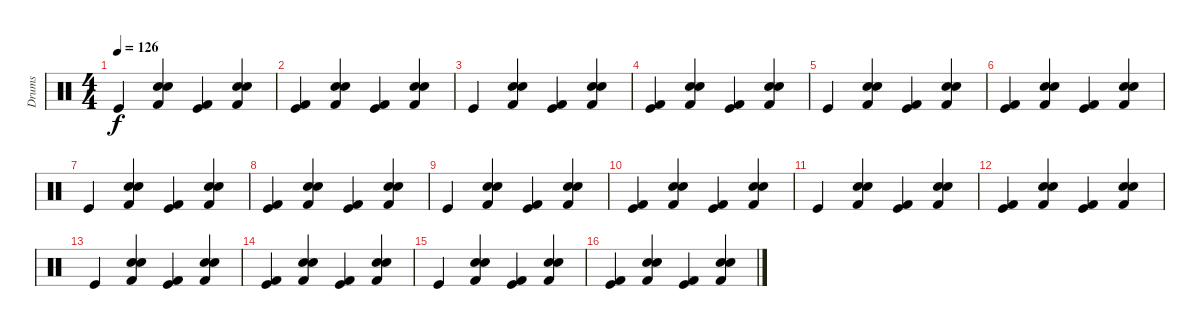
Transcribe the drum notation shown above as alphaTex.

\track ("Drums" "Drums") {instrument percussion}
\staff {score}
\articulation defaults
\ts (4 4)
\tempo 126
\clef neutral
\ks c "Kick (hit)".4{dy f}
("Snare (hit) 2" "Hand Clap (hit)" "Kick (hit) 2").4 ("Kick (hit)" "Kick (hit) 2").4 ("Snare (hit) 2" "Hand Clap (hit)" "Kick (hit) 2").4 |
("Kick (hit)" "Kick (hit) 2").4 ("Snare (hit) 2" "Hand Clap (hit)" "Kick (hit) 2").4 ("Kick (hit)" "Kick (hit) 2").4 ("Snare (hit) 2" "Hand Clap (hit)" "Kick (hit) 2").4 |
"Kick (hit)".4 ("Snare (hit) 2" "Hand Clap (hit)" "Kick (hit) 2").4 ("Kick (hit)" "Kick (hit) 2").4 ("Snare (hit) 2" "Hand Clap (hit)" "Kick (hit) 2").4 |
("Kick (hit)" "Kick (hit) 2").4 ("Snare (hit) 2" "Hand Clap (hit)" "Kick (hit) 2").4 ("Kick (hit)" "Kick (hit) 2").4 ("Snare (hit) 2" "Hand Clap (hit)" "Kick (hit) 2").4 |
"Kick (hit)".4 ("Snare (hit) 2" "Hand Clap (hit)" "Kick (hit) 2").4 ("Kick (hit)" "Kick (hit) 2").4 ("Snare (hit) 2" "Hand Clap (hit)" "Kick (hit) 2").4 |
("Kick (hit)" "Kick (hit) 2").4 ("Snare (hit) 2" "Hand Clap (hit)" "Kick (hit) 2").4 ("Kick (hit)" "Kick (hit) 2").4 ("Snare (hit) 2" "Hand Clap (hit)" "Kick (hit) 2").4 |
"Kick (hit)".4 ("Snare (hit) 2" "Hand Clap (hit)" "Kick (hit) 2").4 ("Kick (hit)" "Kick (hit) 2").4 ("Snare (hit) 2" "Hand Clap (hit)" "Kick (hit) 2").4 |
("Kick (hit)" "Kick (hit) 2").4 ("Snare (hit) 2" "Hand Clap (hit)" "Kick (hit) 2").4 ("Kick (hit)" "Kick (hit) 2").4 ("Snare (hit) 2" "Hand Clap (hit)" "Kick (hit) 2").4 |
"Kick (hit)".4 ("Snare (hit) 2" "Hand Clap (hit)" "Kick (hit) 2").4 ("Kick (hit)" "Kick (hit) 2").4 ("Snare (hit) 2" "Hand Clap (hit)" "Kick (hit) 2").4 |
("Kick (hit)" "Kick (hit) 2").4 ("Snare (hit) 2" "Hand Clap (hit)" "Kick (hit) 2").4 ("Kick (hit)" "Kick (hit) 2").4 ("Snare (hit) 2" "Hand Clap (hit)" "Kick (hit) 2").4 |
"Kick (hit)".4 ("Snare (hit) 2" "Hand Clap (hit)" "Kick (hit) 2").4 ("Kick (hit)" "Kick (hit) 2").4 ("Snare (hit) 2" "Hand Clap (hit)" "Kick (hit) 2").4 |
("Kick (hit)" "Kick (hit) 2").4 ("Snare (hit) 2" "Hand Clap (hit)" "Kick (hit) 2").4 ("Kick (hit)" "Kick (hit) 2").4 ("Snare (hit) 2" "Hand Clap (hit)" "Kick (hit) 2").4 |
"Kick (hit)".4 ("Snare (hit) 2" "Hand Clap (hit)" "Kick (hit) 2").4 ("Kick (hit)" "Kick (hit) 2").4 ("Snare (hit) 2" "Hand Clap (hit)" "Kick (hit) 2").4 |
("Kick (hit)" "Kick (hit) 2").4 ("Snare (hit) 2" "Hand Clap (hit)" "Kick (hit) 2").4 ("Kick (hit)" "Kick (hit) 2").4 ("Snare (hit) 2" "Hand Clap (hit)" "Kick (hit) 2").4 |
"Kick (hit)".4 ("Snare (hit) 2" "Hand Clap (hit)" "Kick (hit) 2").4 ("Kick (hit)" "Kick (hit) 2").4 ("Snare (hit) 2" "Hand Clap (hit)" "Kick (hit) 2").4 |
("Kick (hit)" "Kick (hit) 2").4 ("Snare (hit) 2" "Hand Clap (hit)" "Kick (hit) 2").4 ("Kick (hit)" "Kick (hit) 2").4 ("Snare (hit) 2" "Hand Clap (hit)" "Kick (hit) 2").4
